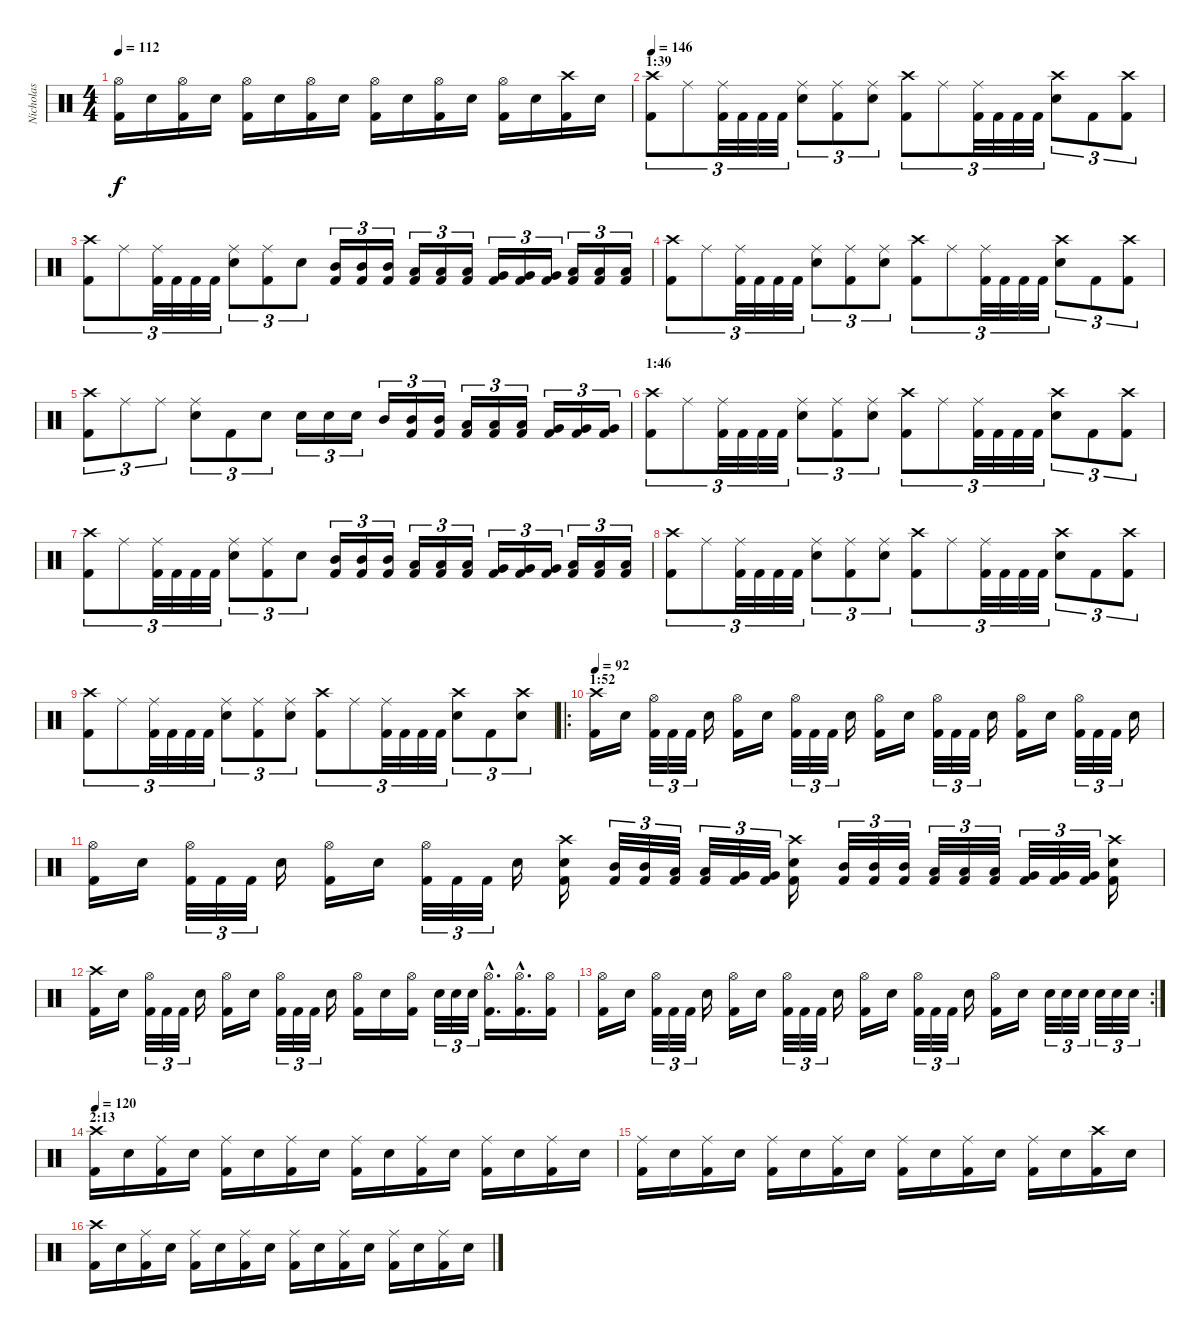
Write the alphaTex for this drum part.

\track ("Nicholas" "Nicholas") {instrument percussion}
\staff {score}
\articulation defaults
\ts (4 4)
\tempo 112
\clef neutral
\ks c
("Kick (hit) 2" "Hi-Hat (open)").16{dy f} "Snare (hit) 2".16 ("Kick (hit) 2" "Hi-Hat (open)").16 "Snare (hit) 2".16 ("Kick (hit) 2" "Hi-Hat (open)").16 "Snare (hit) 2".16 ("Kick (hit) 2" "Hi-Hat (open)").16 "Snare (hit) 2".16 ("Kick (hit) 2" "Hi-Hat (open)").16 "Snare (hit) 2".16 ("Kick (hit) 2" "Hi-Hat (open)").16 "Snare (hit) 2".16 ("Kick (hit) 2" "Hi-Hat (open)").16 "Snare (hit) 2".16 ("Kick (hit) 2" "Crash high (hit)").16 "Snare (hit) 2".16 |
\section ("" "1:39")
\tempo 146
("Kick (hit) 2" "Crash high (hit)").8{tu (3 2)} "Ride (middle)".8{tu (3 2)} ("Kick (hit) 2" "Ride (middle)").32{tu (3 2)} "Kick (hit) 2".32{tu (3 2)} "Kick (hit) 2".32{tu (3 2)} "Kick (hit) 2".32{tu (3 2)} ("Snare (hit) 2" "Ride (middle)").8{tu (3 2)} ("Kick (hit) 2" "Ride (middle)").8{tu (3 2)} ("Snare (hit) 2" "Ride (middle)").8{tu (3 2)} ("Kick (hit) 2" "Crash high (hit)").8{tu (3 2)} "Ride (middle)".8{tu (3 2)} ("Kick (hit) 2" "Ride (middle)").32{tu (3 2)} "Kick (hit) 2".32{tu (3 2)} "Kick (hit) 2".32{tu (3 2)} "Kick (hit) 2".32{tu (3 2)} ("Snare (hit) 2" "Crash high (hit)").8{tu (3 2)} "Kick (hit) 2".8{tu (3 2)} ("Kick (hit) 2" "Crash high (hit)").8{tu (3 2)} |
("Kick (hit) 2" "Crash high (hit)").8{tu (3 2)} "Ride (middle)".8{tu (3 2)} ("Kick (hit) 2" "Ride (middle)").32{tu (3 2)} "Kick (hit) 2".32{tu (3 2)} "Kick (hit) 2".32{tu (3 2)} "Kick (hit) 2".32{tu (3 2)} ("Snare (hit) 2" "Ride (middle)").8{tu (3 2)} ("Kick (hit) 2" "Ride (middle)").8{tu (3 2)} "Snare (hit) 2".8{tu (3 2)} ("Kick (hit) 2" "Mid Tom (hit)").16{tu (3 2)} ("Kick (hit) 2" "Mid Tom (hit)").16{tu (3 2)} ("Kick (hit) 2" "Mid Tom (hit)").16{tu (3 2)} ("Kick (hit) 2" "Low Tom (hit)").16{tu (3 2)} ("Kick (hit) 2" "Low Tom (hit)").16{tu (3 2)} ("Kick (hit) 2" "Low Tom (hit)").16{tu (3 2)} ("Kick (hit) 2" "Very Low Tom (hit)").16{tu (3 2)} ("Kick (hit) 2" "Very Low Tom (hit)").16{tu (3 2)} ("Kick (hit) 2" "Very Low Tom (hit)").16{tu (3 2)} ("Kick (hit) 2" "Low Floor Tom (hit)").16{tu (3 2)} ("Kick (hit) 2" "Low Floor Tom (hit)").16{tu (3 2)} ("Kick (hit) 2" "Low Floor Tom (hit)").16{tu (3 2)} |
("Kick (hit) 2" "Crash high (hit)").8{tu (3 2)} "Ride (middle)".8{tu (3 2)} ("Kick (hit) 2" "Ride (middle)").32{tu (3 2)} "Kick (hit) 2".32{tu (3 2)} "Kick (hit) 2".32{tu (3 2)} "Kick (hit) 2".32{tu (3 2)} ("Snare (hit) 2" "Ride (middle)").8{tu (3 2)} ("Kick (hit) 2" "Ride (middle)").8{tu (3 2)} ("Snare (hit) 2" "Ride (middle)").8{tu (3 2)} ("Kick (hit) 2" "Crash high (hit)").8{tu (3 2)} "Ride (middle)".8{tu (3 2)} ("Kick (hit) 2" "Ride (middle)").32{tu (3 2)} "Kick (hit) 2".32{tu (3 2)} "Kick (hit) 2".32{tu (3 2)} "Kick (hit) 2".32{tu (3 2)} ("Snare (hit) 2" "Crash high (hit)").8{tu (3 2)} "Kick (hit) 2".8{tu (3 2)} ("Kick (hit) 2" "Crash high (hit)").8{tu (3 2)} |
("Kick (hit) 2" "Crash high (hit)").8{tu (3 2)} "Ride (middle)".8{tu (3 2)} "Ride (middle)".8{tu (3 2)} ("Snare (hit) 2" "Ride (middle)").8{tu (3 2)} "Kick (hit) 2".8{tu (3 2)} "Snare (hit) 2".8{tu (3 2)} "Snare (hit) 2".16{tu (3 2)} "Snare (hit) 2".16{tu (3 2)} "Snare (hit) 2".16{tu (3 2)} "Mid Tom (hit)".16{tu (3 2)} ("Kick (hit) 2" "Mid Tom (hit)").16{tu (3 2)} ("Kick (hit) 2" "Mid Tom (hit)").16{tu (3 2)} ("Kick (hit) 2" "Low Tom (hit)").16{tu (3 2)} ("Kick (hit) 2" "Low Tom (hit)").16{tu (3 2)} ("Kick (hit) 2" "Low Tom (hit)").16{tu (3 2)} ("Kick (hit) 2" "Very Low Tom (hit)").16{tu (3 2)} ("Kick (hit) 2" "Very Low Tom (hit)").16{tu (3 2)} ("Kick (hit) 2" "Very Low Tom (hit)").16{tu (3 2)} |
\section ("" "1:46")
("Kick (hit) 2" "Crash high (hit)").8{tu (3 2)} "Ride (middle)".8{tu (3 2)} ("Kick (hit) 2" "Ride (middle)").32{tu (3 2)} "Kick (hit) 2".32{tu (3 2)} "Kick (hit) 2".32{tu (3 2)} "Kick (hit) 2".32{tu (3 2)} ("Snare (hit) 2" "Ride (middle)").8{tu (3 2)} ("Kick (hit) 2" "Ride (middle)").8{tu (3 2)} ("Snare (hit) 2" "Ride (middle)").8{tu (3 2)} ("Kick (hit) 2" "Crash high (hit)").8{tu (3 2)} "Ride (middle)".8{tu (3 2)} ("Kick (hit) 2" "Ride (middle)").32{tu (3 2)} "Kick (hit) 2".32{tu (3 2)} "Kick (hit) 2".32{tu (3 2)} "Kick (hit) 2".32{tu (3 2)} ("Snare (hit) 2" "Crash high (hit)").8{tu (3 2)} "Kick (hit) 2".8{tu (3 2)} ("Kick (hit) 2" "Crash high (hit)").8{tu (3 2)} |
("Kick (hit) 2" "Crash high (hit)").8{tu (3 2)} "Ride (middle)".8{tu (3 2)} ("Kick (hit) 2" "Ride (middle)").32{tu (3 2)} "Kick (hit) 2".32{tu (3 2)} "Kick (hit) 2".32{tu (3 2)} "Kick (hit) 2".32{tu (3 2)} ("Snare (hit) 2" "Ride (middle)").8{tu (3 2)} ("Kick (hit) 2" "Ride (middle)").8{tu (3 2)} "Snare (hit) 2".8{tu (3 2)} ("Kick (hit) 2" "Mid Tom (hit)").16{tu (3 2)} ("Kick (hit) 2" "Mid Tom (hit)").16{tu (3 2)} ("Kick (hit) 2" "Mid Tom (hit)").16{tu (3 2)} ("Kick (hit) 2" "Low Tom (hit)").16{tu (3 2)} ("Kick (hit) 2" "Low Tom (hit)").16{tu (3 2)} ("Kick (hit) 2" "Low Tom (hit)").16{tu (3 2)} ("Kick (hit) 2" "Very Low Tom (hit)").16{tu (3 2)} ("Kick (hit) 2" "Very Low Tom (hit)").16{tu (3 2)} ("Kick (hit) 2" "Very Low Tom (hit)").16{tu (3 2)} ("Kick (hit) 2" "Low Floor Tom (hit)").16{tu (3 2)} ("Kick (hit) 2" "Low Floor Tom (hit)").16{tu (3 2)} ("Kick (hit) 2" "Low Floor Tom (hit)").16{tu (3 2)} |
("Kick (hit) 2" "Crash high (hit)").8{tu (3 2)} "Ride (middle)".8{tu (3 2)} ("Kick (hit) 2" "Ride (middle)").32{tu (3 2)} "Kick (hit) 2".32{tu (3 2)} "Kick (hit) 2".32{tu (3 2)} "Kick (hit) 2".32{tu (3 2)} ("Snare (hit) 2" "Ride (middle)").8{tu (3 2)} ("Kick (hit) 2" "Ride (middle)").8{tu (3 2)} ("Snare (hit) 2" "Ride (middle)").8{tu (3 2)} ("Kick (hit) 2" "Crash high (hit)").8{tu (3 2)} "Ride (middle)".8{tu (3 2)} ("Kick (hit) 2" "Ride (middle)").32{tu (3 2)} "Kick (hit) 2".32{tu (3 2)} "Kick (hit) 2".32{tu (3 2)} "Kick (hit) 2".32{tu (3 2)} ("Snare (hit) 2" "Crash high (hit)").8{tu (3 2)} "Kick (hit) 2".8{tu (3 2)} ("Kick (hit) 2" "Crash high (hit)").8{tu (3 2)} |
("Kick (hit) 2" "Crash high (hit)").8{tu (3 2)} "Ride (middle)".8{tu (3 2)} ("Kick (hit) 2" "Ride (middle)").32{tu (3 2)} "Kick (hit) 2".32{tu (3 2)} "Kick (hit) 2".32{tu (3 2)} "Kick (hit) 2".32{tu (3 2)} ("Snare (hit) 2" "Ride (middle)").8{tu (3 2)} ("Kick (hit) 2" "Ride (middle)").8{tu (3 2)} ("Snare (hit) 2" "Ride (middle)").8{tu (3 2)} ("Kick (hit) 2" "Crash high (hit)").8{tu (3 2)} "Ride (middle)".8{tu (3 2)} ("Kick (hit) 2" "Ride (middle)").32{tu (3 2)} "Kick (hit) 2".32{tu (3 2)} "Kick (hit) 2".32{tu (3 2)} "Kick (hit) 2".32{tu (3 2)} ("Snare (hit) 2" "Crash high (hit)").8{tu (3 2)} "Kick (hit) 2".8{tu (3 2)} ("Snare (hit) 2" "Crash high (hit)").8{tu (3 2)} |
\ro
\section ("" "1:52")
\tempo 92
("Kick (hit) 2" "Crash high (hit)").16 "Snare (hit) 2".16 ("Kick (hit) 2" "Hi-Hat (open)").32{tu (3 2)} "Kick (hit) 2".32{tu (3 2)} "Kick (hit) 2".32{tu (3 2)} "Snare (hit) 2".16 ("Kick (hit) 2" "Hi-Hat (open)").16 "Snare (hit) 2".16 ("Kick (hit) 2" "Hi-Hat (open)").32{tu (3 2)} "Kick (hit) 2".32{tu (3 2)} "Kick (hit) 2".32{tu (3 2)} "Snare (hit) 2".16 ("Kick (hit) 2" "Hi-Hat (open)").16 "Snare (hit) 2".16 ("Kick (hit) 2" "Hi-Hat (open)").32{tu (3 2)} "Kick (hit) 2".32{tu (3 2)} "Kick (hit) 2".32{tu (3 2)} "Snare (hit) 2".16 ("Kick (hit) 2" "Hi-Hat (open)").16 "Snare (hit) 2".16 ("Kick (hit) 2" "Hi-Hat (open)").32{tu (3 2)} "Kick (hit) 2".32{tu (3 2)} "Kick (hit) 2".32{tu (3 2)} "Snare (hit) 2".16 |
("Kick (hit) 2" "Hi-Hat (open)").16 "Snare (hit) 2".16 ("Kick (hit) 2" "Hi-Hat (open)").32{tu (3 2)} "Kick (hit) 2".32{tu (3 2)} "Kick (hit) 2".32{tu (3 2)} "Snare (hit) 2".16 ("Kick (hit) 2" "Hi-Hat (open)").16 "Snare (hit) 2".16 ("Kick (hit) 2" "Hi-Hat (open)").32{tu (3 2)} "Kick (hit) 2".32{tu (3 2)} "Kick (hit) 2".32{tu (3 2)} "Snare (hit) 2".16 ("Kick (hit) 2" "Snare (hit) 2" "Crash high (hit)").16 ("Kick (hit) 2" "Mid Tom (hit)").32{tu (3 2)} ("Kick (hit) 2" "Mid Tom (hit)").32{tu (3 2)} ("Kick (hit) 2" "Low Tom (hit)").32{tu (3 2)} ("Kick (hit) 2" "Low Tom (hit)").32{tu (3 2)} ("Kick (hit) 2" "Very Low Tom (hit)").32{tu (3 2)} ("Kick (hit) 2" "Very Low Tom (hit)").32{tu (3 2)} ("Kick (hit) 2" "Snare (hit) 2" "Crash high (hit)").16 ("Kick (hit) 2" "Mid Tom (hit)").32{tu (3 2)} ("Kick (hit) 2" "Mid Tom (hit)").32{tu (3 2)} ("Kick (hit) 2" "Mid Tom (hit)").32{tu (3 2)} ("Kick (hit) 2" "Low Tom (hit)").32{tu (3 2)} ("Kick (hit) 2" "Low Tom (hit)").32{tu (3 2)} ("Kick (hit) 2" "Low Tom (hit)").32{tu (3 2)} ("Kick (hit) 2" "Very Low Tom (hit)").32{tu (3 2)} ("Kick (hit) 2" "Very Low Tom (hit)").32{tu (3 2)} ("Kick (hit) 2" "Very Low Tom (hit)").32{tu (3 2)} ("Kick (hit) 2" "Snare (hit) 2" "Crash high (hit)").16 |
("Kick (hit) 2" "Crash high (hit)").16 "Snare (hit) 2".16 ("Kick (hit) 2" "Hi-Hat (open)").32{tu (3 2)} "Kick (hit) 2".32{tu (3 2)} "Kick (hit) 2".32{tu (3 2)} "Snare (hit) 2".16 ("Kick (hit) 2" "Hi-Hat (open)").16 "Snare (hit) 2".16 ("Kick (hit) 2" "Hi-Hat (open)").32{tu (3 2)} "Kick (hit) 2".32{tu (3 2)} "Kick (hit) 2".32{tu (3 2)} "Snare (hit) 2".16 ("Kick (hit) 2" "Hi-Hat (open)").16 "Snare (hit) 2".16 ("Kick (hit) 2" "Hi-Hat (open)").16 "Snare (hit) 2".32{tu (3 2)} "Snare (hit) 2".32{tu (3 2)} "Snare (hit) 2".32{tu (3 2)} ("Kick (hit) 2"{hac} "Hi-Hat (open)"{hac}).16{d} ("Kick (hit) 2"{hac} "Hi-Hat (open)"{hac}).16{d} ("Kick (hit) 2" "Hi-Hat (open)").16 |
\rc 2
("Kick (hit) 2" "Hi-Hat (open)").16 "Snare (hit) 2".16 ("Kick (hit) 2" "Hi-Hat (open)").32{tu (3 2)} "Kick (hit) 2".32{tu (3 2)} "Kick (hit) 2".32{tu (3 2)} "Snare (hit) 2".16 ("Kick (hit) 2" "Hi-Hat (open)").16 "Snare (hit) 2".16 ("Kick (hit) 2" "Hi-Hat (open)").32{tu (3 2)} "Kick (hit) 2".32{tu (3 2)} "Kick (hit) 2".32{tu (3 2)} "Snare (hit) 2".16 ("Kick (hit) 2" "Hi-Hat (open)").16 "Snare (hit) 2".16 ("Kick (hit) 2" "Hi-Hat (open)").32{tu (3 2)} "Kick (hit) 2".32{tu (3 2)} "Kick (hit) 2".32{tu (3 2)} "Snare (hit) 2".16 ("Kick (hit) 2" "Hi-Hat (open)").16 "Snare (hit) 2".16 "Snare (hit) 2".32{tu (3 2)} "Snare (hit) 2".32{tu (3 2)} "Snare (hit) 2".32{tu (3 2)} "Snare (hit) 2".32{tu (3 2)} "Snare (hit) 2".32{tu (3 2)} "Snare (hit) 2".32{tu (3 2)} |
\section ("" "2:13")
\tempo 120
("Kick (hit) 2" "Crash high (hit)").16 "Snare (hit) 2".16 ("Kick (hit) 2" "Ride (middle)").16 "Snare (hit) 2".16 ("Kick (hit) 2" "Ride (middle)").16 "Snare (hit) 2".16 ("Kick (hit) 2" "Ride (middle)").16 "Snare (hit) 2".16 ("Kick (hit) 2" "Ride (middle)").16 "Snare (hit) 2".16 ("Kick (hit) 2" "Ride (middle)").16 "Snare (hit) 2".16 ("Kick (hit) 2" "Ride (middle)").16 "Snare (hit) 2".16 ("Kick (hit) 2" "Ride (middle)").16 "Snare (hit) 2".16 |
("Kick (hit) 2" "Ride (middle)").16 "Snare (hit) 2".16 ("Kick (hit) 2" "Ride (middle)").16 "Snare (hit) 2".16 ("Kick (hit) 2" "Ride (middle)").16 "Snare (hit) 2".16 ("Kick (hit) 2" "Ride (middle)").16 "Snare (hit) 2".16 ("Kick (hit) 2" "Ride (middle)").16 "Snare (hit) 2".16 ("Kick (hit) 2" "Ride (middle)").16 "Snare (hit) 2".16 ("Kick (hit) 2" "Ride (middle)").16 "Snare (hit) 2".16 ("Kick (hit) 2" "Crash high (hit)").16 "Snare (hit) 2".16 |
("Kick (hit) 2" "Crash high (hit)").16 "Snare (hit) 2".16 ("Kick (hit) 2" "Ride (middle)").16 "Snare (hit) 2".16 ("Kick (hit) 2" "Ride (middle)").16 "Snare (hit) 2".16 ("Kick (hit) 2" "Ride (middle)").16 "Snare (hit) 2".16 ("Kick (hit) 2" "Ride (middle)").16 "Snare (hit) 2".16 ("Kick (hit) 2" "Ride (middle)").16 "Snare (hit) 2".16 ("Kick (hit) 2" "Ride (middle)").16 "Snare (hit) 2".16 ("Kick (hit) 2" "Ride (middle)").16 "Snare (hit) 2".16
